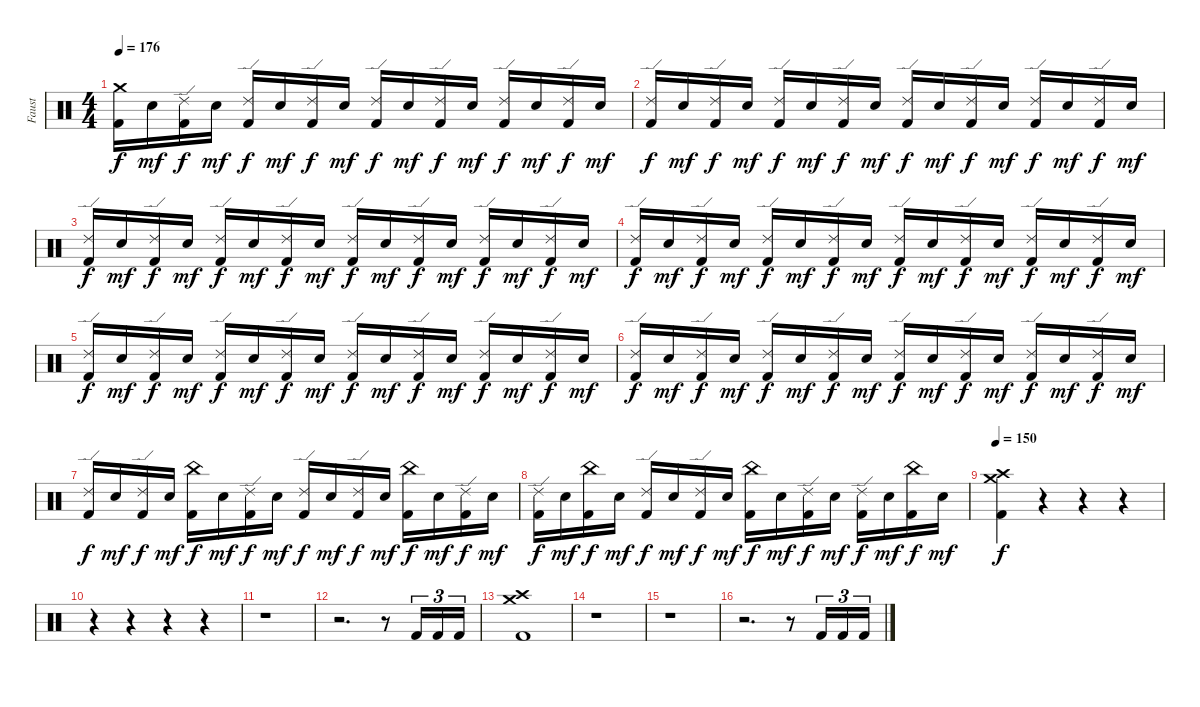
\track ("Faust" "Faust") {instrument percussion}
\staff {score}
\articulation defaults
\ts (4 4)
\tempo 176
\clef neutral
\ks c
("Crash medium (hit)" "Kick (hit) 2").16{dy f} "Electric Snare (hit)".16{dy mf} ("Ride (edge) 2" "Kick (hit) 2").16{dy f} "Electric Snare (hit)".16{dy mf} ("Ride (edge) 2" "Kick (hit) 2").16{dy f} "Electric Snare (hit)".16{dy mf} ("Ride (edge) 2" "Kick (hit) 2").16{dy f} "Electric Snare (hit)".16{dy mf} ("Ride (edge) 2" "Kick (hit) 2").16{dy f} "Electric Snare (hit)".16{dy mf} ("Ride (edge) 2" "Kick (hit) 2").16{dy f} "Electric Snare (hit)".16{dy mf} ("Ride (edge) 2" "Kick (hit) 2").16{dy f} "Electric Snare (hit)".16{dy mf} ("Ride (edge) 2" "Kick (hit) 2").16{dy f} "Electric Snare (hit)".16{dy mf} |
("Ride (edge) 2" "Kick (hit) 2").16{dy f} "Electric Snare (hit)".16{dy mf} ("Ride (edge) 2" "Kick (hit) 2").16{dy f} "Electric Snare (hit)".16{dy mf} ("Ride (edge) 2" "Kick (hit) 2").16{dy f} "Electric Snare (hit)".16{dy mf} ("Ride (edge) 2" "Kick (hit) 2").16{dy f} "Electric Snare (hit)".16{dy mf} ("Ride (edge) 2" "Kick (hit) 2").16{dy f} "Electric Snare (hit)".16{dy mf} ("Ride (edge) 2" "Kick (hit) 2").16{dy f} "Electric Snare (hit)".16{dy mf} ("Ride (edge) 2" "Kick (hit) 2").16{dy f} "Electric Snare (hit)".16{dy mf} ("Ride (edge) 2" "Kick (hit) 2").16{dy f} "Electric Snare (hit)".16{dy mf} |
("Ride (edge) 2" "Kick (hit) 2").16{dy f} "Electric Snare (hit)".16{dy mf} ("Ride (edge) 2" "Kick (hit) 2").16{dy f} "Electric Snare (hit)".16{dy mf} ("Ride (edge) 2" "Kick (hit) 2").16{dy f} "Electric Snare (hit)".16{dy mf} ("Ride (edge) 2" "Kick (hit) 2").16{dy f} "Electric Snare (hit)".16{dy mf} ("Ride (edge) 2" "Kick (hit) 2").16{dy f} "Electric Snare (hit)".16{dy mf} ("Ride (edge) 2" "Kick (hit) 2").16{dy f} "Electric Snare (hit)".16{dy mf} ("Ride (edge) 2" "Kick (hit) 2").16{dy f} "Electric Snare (hit)".16{dy mf} ("Ride (edge) 2" "Kick (hit) 2").16{dy f} "Electric Snare (hit)".16{dy mf} |
("Ride (edge) 2" "Kick (hit) 2").16{dy f} "Electric Snare (hit)".16{dy mf} ("Ride (edge) 2" "Kick (hit) 2").16{dy f} "Electric Snare (hit)".16{dy mf} ("Ride (edge) 2" "Kick (hit) 2").16{dy f} "Electric Snare (hit)".16{dy mf} ("Ride (edge) 2" "Kick (hit) 2").16{dy f} "Electric Snare (hit)".16{dy mf} ("Ride (edge) 2" "Kick (hit) 2").16{dy f} "Electric Snare (hit)".16{dy mf} ("Ride (edge) 2" "Kick (hit) 2").16{dy f} "Electric Snare (hit)".16{dy mf} ("Ride (edge) 2" "Kick (hit) 2").16{dy f} "Electric Snare (hit)".16{dy mf} ("Ride (edge) 2" "Kick (hit) 2").16{dy f} "Electric Snare (hit)".16{dy mf} |
("Ride (edge) 2" "Kick (hit) 2").16{dy f} "Electric Snare (hit)".16{dy mf} ("Ride (edge) 2" "Kick (hit) 2").16{dy f} "Electric Snare (hit)".16{dy mf} ("Ride (edge) 2" "Kick (hit) 2").16{dy f} "Electric Snare (hit)".16{dy mf} ("Ride (edge) 2" "Kick (hit) 2").16{dy f} "Electric Snare (hit)".16{dy mf} ("Ride (edge) 2" "Kick (hit) 2").16{dy f} "Electric Snare (hit)".16{dy mf} ("Ride (edge) 2" "Kick (hit) 2").16{dy f} "Electric Snare (hit)".16{dy mf} ("Ride (edge) 2" "Kick (hit) 2").16{dy f} "Electric Snare (hit)".16{dy mf} ("Ride (edge) 2" "Kick (hit) 2").16{dy f} "Electric Snare (hit)".16{dy mf} |
("Ride (edge) 2" "Kick (hit) 2").16{dy f} "Electric Snare (hit)".16{dy mf} ("Ride (edge) 2" "Kick (hit) 2").16{dy f} "Electric Snare (hit)".16{dy mf} ("Ride (edge) 2" "Kick (hit) 2").16{dy f} "Electric Snare (hit)".16{dy mf} ("Ride (edge) 2" "Kick (hit) 2").16{dy f} "Electric Snare (hit)".16{dy mf} ("Ride (edge) 2" "Kick (hit) 2").16{dy f} "Electric Snare (hit)".16{dy mf} ("Ride (edge) 2" "Kick (hit) 2").16{dy f} "Electric Snare (hit)".16{dy mf} ("Ride (edge) 2" "Kick (hit) 2").16{dy f} "Electric Snare (hit)".16{dy mf} ("Ride (edge) 2" "Kick (hit) 2").16{dy f} "Electric Snare (hit)".16{dy mf} |
("Ride (edge) 2" "Kick (hit) 2").16{dy f} "Electric Snare (hit)".16{dy mf} ("Ride (edge) 2" "Kick (hit) 2").16{dy f} "Electric Snare (hit)".16{dy mf} ("China (hit)" "Kick (hit) 2").16{dy f} "Electric Snare (hit)".16{dy mf} ("Ride (edge) 2" "Kick (hit) 2").16{dy f} "Electric Snare (hit)".16{dy mf} ("Ride (edge) 2" "Kick (hit) 2").16{dy f} "Electric Snare (hit)".16{dy mf} ("Ride (edge) 2" "Kick (hit) 2").16{dy f} "Electric Snare (hit)".16{dy mf} ("China (hit)" "Kick (hit) 2").16{dy f} "Electric Snare (hit)".16{dy mf} ("Ride (edge) 2" "Kick (hit) 2").16{dy f} "Electric Snare (hit)".16{dy mf} |
("Ride (edge) 2" "Kick (hit) 2").16{dy f} "Electric Snare (hit)".16{dy mf} ("China (hit)" "Kick (hit) 2").16{dy f} "Electric Snare (hit)".16{dy mf} ("Ride (edge) 2" "Kick (hit) 2").16{dy f} "Electric Snare (hit)".16{dy mf} ("Ride (edge) 2" "Kick (hit) 2").16{dy f} "Electric Snare (hit)".16{dy mf} ("China (hit)" "Kick (hit) 2").16{dy f} "Electric Snare (hit)".16{dy mf} ("Ride (edge) 2" "Kick (hit) 2").16{dy f} "Electric Snare (hit)".16{dy mf} ("Ride (edge) 2" "Kick (hit) 2").16{dy f} "Electric Snare (hit)".16{dy mf} ("China (hit)" "Kick (hit) 2").16{dy f} "Electric Snare (hit)".16{dy mf} |
\tempo 150
("Crash medium (hit)" "Crash high (hit)" "Kick (hit) 2").4{dy f} r.4 r.4 r.4 |
r.4 r.4 r.4 r.4 |
r.1 |
r.2{d} r.8 "Kick (hit) 2".16{tu (3 2)} "Kick (hit) 2".16{tu (3 2)} "Kick (hit) 2".16{tu (3 2)} |
("Crash medium (hit)" "Crash high (hit)" "Kick (hit) 2").1 |
r.1 |
r.1 |
r.2{d} r.8 "Kick (hit) 2".16{tu (3 2)} "Kick (hit) 2".16{tu (3 2)} "Kick (hit) 2".16{tu (3 2)}
